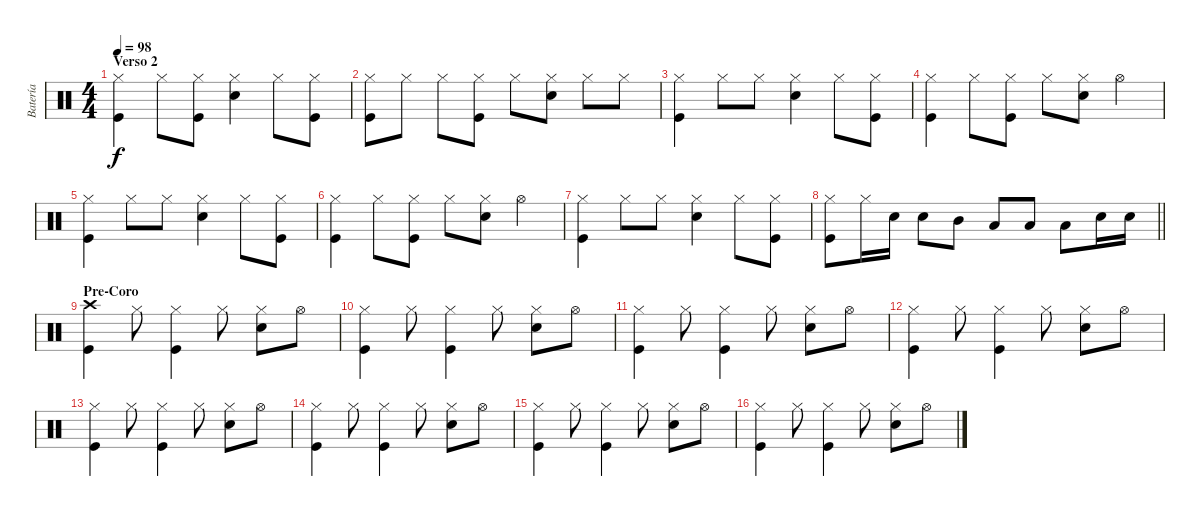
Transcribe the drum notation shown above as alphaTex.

\track ("Batería" "Batería") {instrument percussion}
\staff {score}
\articulation defaults
\ts (4 4)
\section ("" "Verso 2")
\tempo 98
\clef neutral
\ks c
("Hi-Hat (closed)" "Kick (hit)").4{dy f} "Hi-Hat (closed)".8 ("Hi-Hat (closed)" "Kick (hit)").8 ("Hi-Hat (closed)" "Snare (hit) 2").4 "Hi-Hat (closed)".8 ("Hi-Hat (closed)" "Kick (hit)").8 |
("Hi-Hat (closed)" "Kick (hit)").8 "Hi-Hat (closed)".8 "Hi-Hat (closed)".8 ("Hi-Hat (closed)" "Kick (hit)").8 "Hi-Hat (closed)".8 ("Hi-Hat (closed)" "Snare (hit) 2").8 "Hi-Hat (closed)".8 "Hi-Hat (closed)".8 |
("Hi-Hat (closed)" "Kick (hit)").4 "Hi-Hat (closed)".8 "Hi-Hat (closed)".8 ("Hi-Hat (closed)" "Snare (hit) 2").4 "Hi-Hat (closed)".8 ("Hi-Hat (closed)" "Kick (hit)").8 |
("Hi-Hat (closed)" "Kick (hit)").4 "Hi-Hat (closed)".8 ("Hi-Hat (closed)" "Kick (hit)").8 "Hi-Hat (closed)".8 ("Hi-Hat (closed)" "Snare (hit) 2").8 "Hi-Hat (open)".4 |
("Hi-Hat (closed)" "Kick (hit)").4 "Hi-Hat (closed)".8 "Hi-Hat (closed)".8 ("Hi-Hat (closed)" "Snare (hit) 2").4 "Hi-Hat (closed)".8 ("Hi-Hat (closed)" "Kick (hit)").8 |
("Hi-Hat (closed)" "Kick (hit)").4 "Hi-Hat (closed)".8 ("Hi-Hat (closed)" "Kick (hit)").8 "Hi-Hat (closed)".8 ("Hi-Hat (closed)" "Snare (hit) 2").8 "Hi-Hat (open)".4 |
("Hi-Hat (closed)" "Kick (hit)").4 "Hi-Hat (closed)".8 "Hi-Hat (closed)".8 ("Hi-Hat (closed)" "Snare (hit) 2").4 "Hi-Hat (closed)".8 ("Hi-Hat (closed)" "Kick (hit)").8 |
\barLineRight lightlight
("Hi-Hat (closed)" "Kick (hit)").8 "Hi-Hat (closed)".16 "Snare (hit) 2".16 "Snare (hit) 2".8 "Mid Tom (hit)".8 "Low Tom (hit)".8 "Low Floor Tom (hit)".8 "Low Tom (hit)".8 "Snare (hit) 2".16 "Snare (hit) 2".16 |
\section ("" "Pre-Coro")
("Crash high (hit)" "Kick (hit)").4 "Hi-Hat (closed)".8 ("Hi-Hat (closed)" "Kick (hit)").4 "Hi-Hat (closed)".8 ("Hi-Hat (closed)" "Snare (hit) 2").8 "Hi-Hat (open)".8 |
("Hi-Hat (closed)" "Kick (hit)").4 "Hi-Hat (closed)".8 ("Hi-Hat (closed)" "Kick (hit)").4 "Hi-Hat (closed)".8 ("Hi-Hat (closed)" "Snare (hit) 2").8 "Hi-Hat (open)".8 |
("Hi-Hat (closed)" "Kick (hit)").4 "Hi-Hat (closed)".8 ("Hi-Hat (closed)" "Kick (hit)").4 "Hi-Hat (closed)".8 ("Hi-Hat (closed)" "Snare (hit) 2").8 "Hi-Hat (open)".8 |
("Hi-Hat (closed)" "Kick (hit)").4 "Hi-Hat (closed)".8 ("Hi-Hat (closed)" "Kick (hit)").4 "Hi-Hat (closed)".8 ("Hi-Hat (closed)" "Snare (hit) 2").8 "Hi-Hat (open)".8 |
("Hi-Hat (closed)" "Kick (hit)").4 "Hi-Hat (closed)".8 ("Hi-Hat (closed)" "Kick (hit)").4 "Hi-Hat (closed)".8 ("Hi-Hat (closed)" "Snare (hit) 2").8 "Hi-Hat (open)".8 |
("Hi-Hat (closed)" "Kick (hit)").4 "Hi-Hat (closed)".8 ("Hi-Hat (closed)" "Kick (hit)").4 "Hi-Hat (closed)".8 ("Hi-Hat (closed)" "Snare (hit) 2").8 "Hi-Hat (open)".8 |
("Hi-Hat (closed)" "Kick (hit)").4 "Hi-Hat (closed)".8 ("Hi-Hat (closed)" "Kick (hit)").4 "Hi-Hat (closed)".8 ("Hi-Hat (closed)" "Snare (hit) 2").8 "Hi-Hat (open)".8 |
("Hi-Hat (closed)" "Kick (hit)").4 "Hi-Hat (closed)".8 ("Hi-Hat (closed)" "Kick (hit)").4 "Hi-Hat (closed)".8 ("Hi-Hat (closed)" "Snare (hit) 2").8 "Hi-Hat (open)".8
